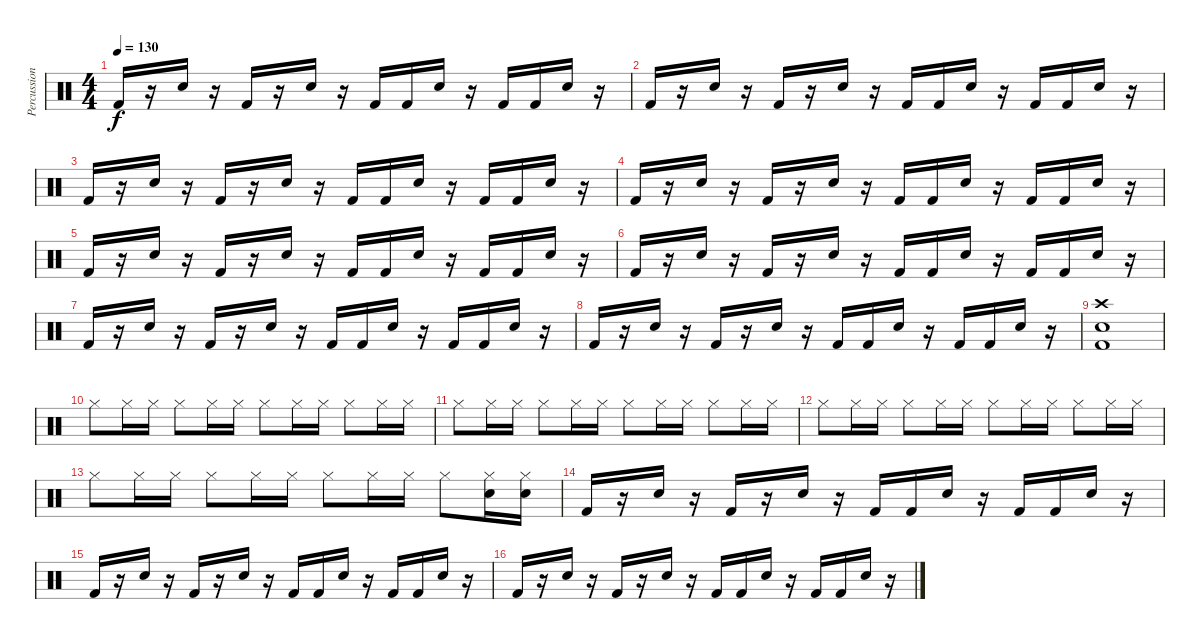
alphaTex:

\track ("Percussion" "Percussion") {instrument percussion}
\staff {score}
\articulation defaults
\ts (4 4)
\tempo 130
\clef neutral
\ks c "Kick (hit) 2".16{dy f}
r.16 "Snare (hit) 2".16 r.16 "Kick (hit) 2".16 r.16 "Snare (hit) 2".16 r.16 "Kick (hit) 2".16 "Kick (hit) 2".16 "Snare (hit) 2".16 r.16 "Kick (hit) 2".16 "Kick (hit) 2".16 "Snare (hit) 2".16 r.16 |
"Kick (hit) 2".16 r.16 "Snare (hit) 2".16 r.16 "Kick (hit) 2".16 r.16 "Snare (hit) 2".16 r.16 "Kick (hit) 2".16 "Kick (hit) 2".16 "Snare (hit) 2".16 r.16 "Kick (hit) 2".16 "Kick (hit) 2".16 "Snare (hit) 2".16 r.16 |
"Kick (hit) 2".16 r.16 "Snare (hit) 2".16 r.16 "Kick (hit) 2".16 r.16 "Snare (hit) 2".16 r.16 "Kick (hit) 2".16 "Kick (hit) 2".16 "Snare (hit) 2".16 r.16 "Kick (hit) 2".16 "Kick (hit) 2".16 "Snare (hit) 2".16 r.16 |
"Kick (hit) 2".16 r.16 "Snare (hit) 2".16 r.16 "Kick (hit) 2".16 r.16 "Snare (hit) 2".16 r.16 "Kick (hit) 2".16 "Kick (hit) 2".16 "Snare (hit) 2".16 r.16 "Kick (hit) 2".16 "Kick (hit) 2".16 "Snare (hit) 2".16 r.16 |
"Kick (hit) 2".16 r.16 "Snare (hit) 2".16 r.16 "Kick (hit) 2".16 r.16 "Snare (hit) 2".16 r.16 "Kick (hit) 2".16 "Kick (hit) 2".16 "Snare (hit) 2".16 r.16 "Kick (hit) 2".16 "Kick (hit) 2".16 "Snare (hit) 2".16 r.16 |
"Kick (hit) 2".16 r.16 "Snare (hit) 2".16 r.16 "Kick (hit) 2".16 r.16 "Snare (hit) 2".16 r.16 "Kick (hit) 2".16 "Kick (hit) 2".16 "Snare (hit) 2".16 r.16 "Kick (hit) 2".16 "Kick (hit) 2".16 "Snare (hit) 2".16 r.16 |
"Kick (hit) 2".16 r.16 "Snare (hit) 2".16 r.16 "Kick (hit) 2".16 r.16 "Snare (hit) 2".16 r.16 "Kick (hit) 2".16 "Kick (hit) 2".16 "Snare (hit) 2".16 r.16 "Kick (hit) 2".16 "Kick (hit) 2".16 "Snare (hit) 2".16 r.16 |
"Kick (hit) 2".16 r.16 "Snare (hit) 2".16 r.16 "Kick (hit) 2".16 r.16 "Snare (hit) 2".16 r.16 "Kick (hit) 2".16 "Kick (hit) 2".16 "Snare (hit) 2".16 r.16 "Kick (hit) 2".16 "Kick (hit) 2".16 "Snare (hit) 2".16 r.16 |
("Crash high (hit)" "Snare (hit) 2" "Kick (hit) 2").1 |
"Hi-Hat (closed)".8 "Hi-Hat (closed)".16 "Hi-Hat (closed)".16 "Hi-Hat (closed)".8 "Hi-Hat (closed)".16 "Hi-Hat (closed)".16 "Hi-Hat (closed)".8 "Hi-Hat (closed)".16 "Hi-Hat (closed)".16 "Hi-Hat (closed)".8 "Hi-Hat (closed)".16 "Hi-Hat (closed)".16 |
"Hi-Hat (closed)".8 "Hi-Hat (closed)".16 "Hi-Hat (closed)".16 "Hi-Hat (closed)".8 "Hi-Hat (closed)".16 "Hi-Hat (closed)".16 "Hi-Hat (closed)".8 "Hi-Hat (closed)".16 "Hi-Hat (closed)".16 "Hi-Hat (closed)".8 "Hi-Hat (closed)".16 "Hi-Hat (closed)".16 |
"Hi-Hat (closed)".8 "Hi-Hat (closed)".16 "Hi-Hat (closed)".16 "Hi-Hat (closed)".8 "Hi-Hat (closed)".16 "Hi-Hat (closed)".16 "Hi-Hat (closed)".8 "Hi-Hat (closed)".16 "Hi-Hat (closed)".16 "Hi-Hat (closed)".8 "Hi-Hat (closed)".16 "Hi-Hat (closed)".16 |
"Hi-Hat (closed)".8 "Hi-Hat (closed)".16 "Hi-Hat (closed)".16 "Hi-Hat (closed)".8 "Hi-Hat (closed)".16 "Hi-Hat (closed)".16 "Hi-Hat (closed)".8 "Hi-Hat (closed)".16 "Hi-Hat (closed)".16 "Hi-Hat (closed)".8 ("Hi-Hat (closed)" "Snare (hit) 2").16 ("Hi-Hat (closed)" "Snare (hit) 2").16 |
"Kick (hit) 2".16 r.16 "Snare (hit) 2".16 r.16 "Kick (hit) 2".16 r.16 "Snare (hit) 2".16 r.16 "Kick (hit) 2".16 "Kick (hit) 2".16 "Snare (hit) 2".16 r.16 "Kick (hit) 2".16 "Kick (hit) 2".16 "Snare (hit) 2".16 r.16 |
"Kick (hit) 2".16 r.16 "Snare (hit) 2".16 r.16 "Kick (hit) 2".16 r.16 "Snare (hit) 2".16 r.16 "Kick (hit) 2".16 "Kick (hit) 2".16 "Snare (hit) 2".16 r.16 "Kick (hit) 2".16 "Kick (hit) 2".16 "Snare (hit) 2".16 r.16 |
"Kick (hit) 2".16 r.16 "Snare (hit) 2".16 r.16 "Kick (hit) 2".16 r.16 "Snare (hit) 2".16 r.16 "Kick (hit) 2".16 "Kick (hit) 2".16 "Snare (hit) 2".16 r.16 "Kick (hit) 2".16 "Kick (hit) 2".16 "Snare (hit) 2".16 r.16
